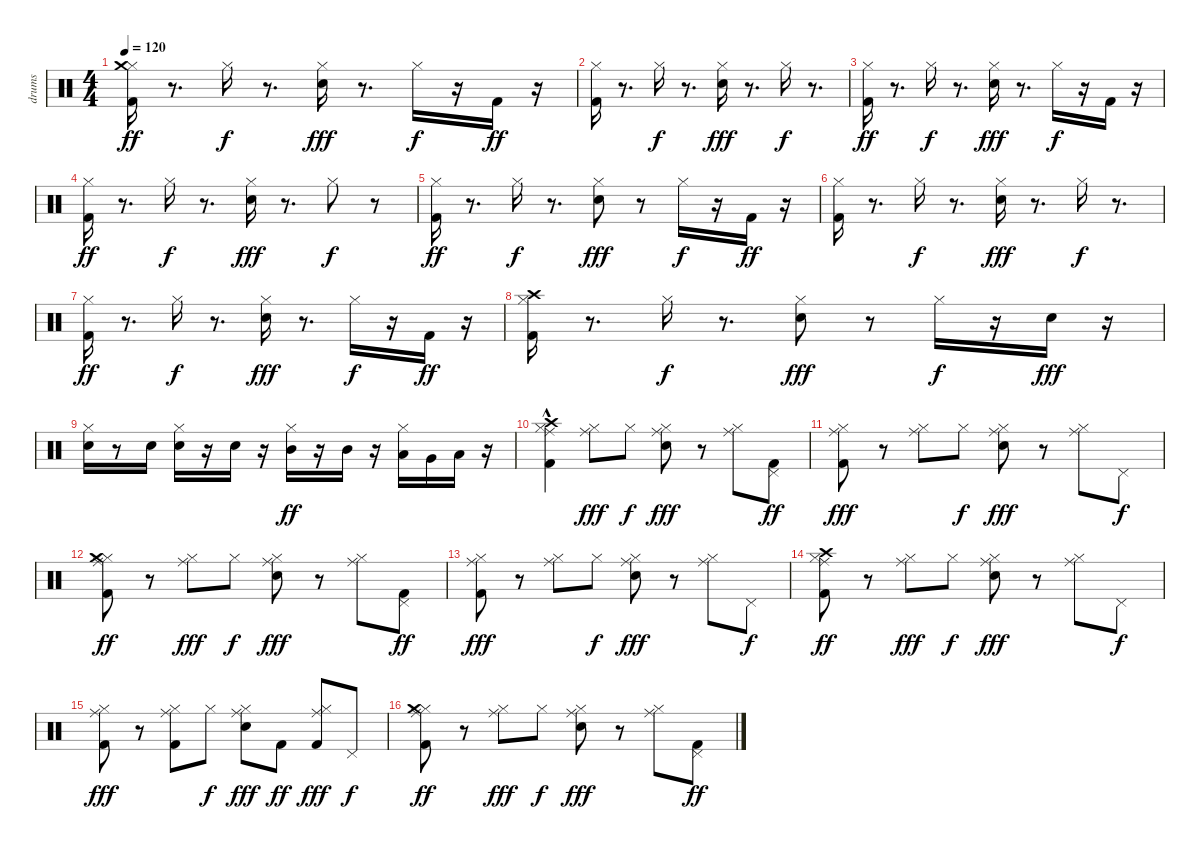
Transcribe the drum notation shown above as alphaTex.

\track ("drums" "drums") {instrument percussion}
\staff {score}
\articulation defaults
\ts (4 4)
\tempo 120
\clef neutral
\ks c
("Kick (hit) 2" "Hi-Hat (closed)" "Crash medium (hit)").16{dy ff} r.8{d} "Hi-Hat (closed)".16{dy f} r.8{d} ("Snare (hit) 2" "Hi-Hat (closed)").16{dy fff} r.8{d} "Hi-Hat (closed)".16{dy f} r.16 "Kick (hit) 2".16{dy ff} r.16 |
("Kick (hit) 2" "Hi-Hat (closed)").16 r.8{d} "Hi-Hat (closed)".16{dy f} r.8{d} ("Snare (hit) 2" "Hi-Hat (closed)").16{dy fff} r.8{d} "Hi-Hat (closed)".16{dy f} r.8{d} |
("Kick (hit) 2" "Hi-Hat (closed)").16{dy ff} r.8{d} "Hi-Hat (closed)".16{dy f} r.8{d} ("Snare (hit) 2" "Hi-Hat (closed)").16{dy fff} r.8{d} "Hi-Hat (closed)".16{dy f} r.16 "Kick (hit) 2".16 r.16 |
("Kick (hit) 2" "Hi-Hat (closed)").16{dy ff} r.8{d} "Hi-Hat (closed)".16{dy f} r.8{d} ("Snare (hit) 2" "Hi-Hat (closed)").16{dy fff} r.8{d} "Hi-Hat (closed)".8{dy f} r.8 |
("Kick (hit) 2" "Hi-Hat (closed)").16{dy ff} r.8{d} "Hi-Hat (closed)".16{dy f} r.8{d} ("Snare (hit) 2" "Hi-Hat (closed)").8{dy fff} r.8 "Hi-Hat (closed)".16{dy f} r.16 "Kick (hit) 2".16{dy ff} r.16 |
("Kick (hit) 2" "Hi-Hat (closed)").16 r.8{d} "Hi-Hat (closed)".16{dy f} r.8{d} ("Snare (hit) 2" "Hi-Hat (closed)").16{dy fff} r.8{d} "Hi-Hat (closed)".16{dy f} r.8{d} |
("Kick (hit) 2" "Hi-Hat (closed)").16{dy ff} r.8{d} "Hi-Hat (closed)".16{dy f} r.8{d} ("Snare (hit) 2" "Hi-Hat (closed)").16{dy fff} r.8{d} "Hi-Hat (closed)".16{dy f} r.16 "Kick (hit) 2".16{dy ff} r.16 |
("Kick (hit) 2" "Hi-Hat (closed)" "Crash high (hit)").16 r.8{d} "Hi-Hat (closed)".16{dy f} r.8{d} ("Snare (hit) 2" "Hi-Hat (closed)").8{dy fff} r.8 "Hi-Hat (closed)".16{dy f} r.16 "Snare (hit) 2".16{dy fff} r.16 |
("Snare (hit) 2" "Hi-Hat (closed)").16 r.8 "Snare (hit) 2".16 ("Snare (hit) 2" "Hi-Hat (closed)").16 r.16 "Snare (hit) 2".16 r.16 ("Hi-Hat (closed)" "Mid Tom (hit)").16{dy ff} r.16 "Mid Tom (hit)".16 r.16 ("Hi-Hat (closed)" "Low Tom (hit)").16 "Very Low Tom (hit)".16 "Low Floor Tom (hit)".16 r.16 |
("Kick (hit) 2" "Hi-Hat (closed)" "Ride (middle)" "Crash high (hit)"{hac}).4 ("Hi-Hat (closed)" "Ride (middle)").8{dy fff} "Hi-Hat (closed)".8{dy f} ("Snare (hit) 2" "Hi-Hat (closed)" "Ride (middle)").8{dy fff} r.8 ("Hi-Hat (closed)" "Ride (middle)").8 ("Kick (hit) 2" "Pedal Hi-Hat (hit)").8{dy ff} |
("Kick (hit) 2" "Hi-Hat (closed)" "Ride (middle)").8{dy fff} r.8 ("Hi-Hat (closed)" "Ride (middle)").8 "Hi-Hat (closed)".8{dy f} ("Snare (hit) 2" "Hi-Hat (closed)" "Ride (middle)").8{dy fff} r.8 ("Hi-Hat (closed)" "Ride (middle)").8 "Pedal Hi-Hat (hit)".8{dy f} |
("Kick (hit) 2" "Hi-Hat (closed)" "Ride (middle)" "Crash medium (hit)").8{dy ff} r.8 ("Hi-Hat (closed)" "Ride (middle)").8{dy fff} "Hi-Hat (closed)".8{dy f} ("Snare (hit) 2" "Hi-Hat (closed)" "Ride (middle)").8{dy fff} r.8 ("Hi-Hat (closed)" "Ride (middle)").8 ("Kick (hit) 2" "Pedal Hi-Hat (hit)").8{dy ff} |
("Kick (hit) 2" "Hi-Hat (closed)" "Ride (middle)").8{dy fff} r.8 ("Hi-Hat (closed)" "Ride (middle)").8 "Hi-Hat (closed)".8{dy f} ("Snare (hit) 2" "Hi-Hat (closed)" "Ride (middle)").8{dy fff} r.8 ("Hi-Hat (closed)" "Ride (middle)").8 "Pedal Hi-Hat (hit)".8{dy f} |
("Kick (hit) 2" "Hi-Hat (closed)" "Ride (middle)" "Crash high (hit)").8{dy ff} r.8 ("Hi-Hat (closed)" "Ride (middle)").8{dy fff} "Hi-Hat (closed)".8{dy f} ("Snare (hit) 2" "Hi-Hat (closed)" "Ride (middle)").8{dy fff} r.8 ("Hi-Hat (closed)" "Ride (middle)").8 "Pedal Hi-Hat (hit)".8{dy f} |
("Kick (hit) 2" "Hi-Hat (closed)" "Ride (middle)").8{dy fff} r.8 ("Kick (hit) 2" "Hi-Hat (closed)" "Ride (middle)").8 "Hi-Hat (closed)".8{dy f} ("Snare (hit) 2" "Hi-Hat (closed)" "Ride (middle)").8{dy fff} "Kick (hit) 2".8{dy ff} ("Kick (hit) 2" "Hi-Hat (closed)" "Ride (middle)").8{dy fff} "Pedal Hi-Hat (hit)".8{dy f} |
("Kick (hit) 2" "Hi-Hat (closed)" "Ride (middle)" "Crash medium (hit)").8{dy ff} r.8 ("Hi-Hat (closed)" "Ride (middle)").8{dy fff} "Hi-Hat (closed)".8{dy f} ("Snare (hit) 2" "Hi-Hat (closed)" "Ride (middle)").8{dy fff} r.8 ("Hi-Hat (closed)" "Ride (middle)").8 ("Kick (hit) 2" "Pedal Hi-Hat (hit)").8{dy ff}
